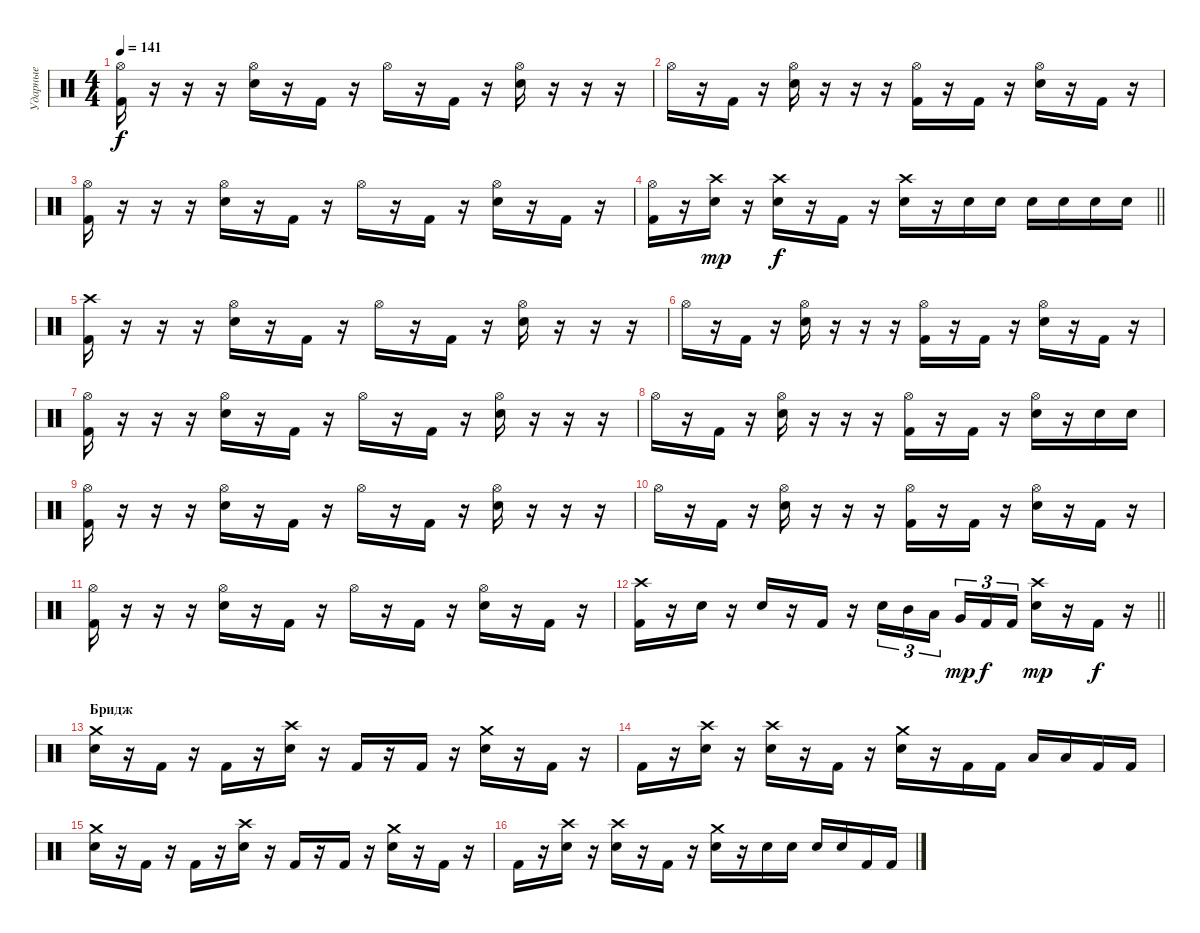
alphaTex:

\track ("Ударные" "Ударные") {instrument percussion}
\staff {score}
\articulation defaults
\ts (4 4)
\tempo 141
\clef neutral
\ks c
("Hi-Hat (open)" "Kick (hit) 2").16{dy f} r.16 r.16 r.16 ("Hi-Hat (open)" "Electric Snare (hit)").16 r.16 "Kick (hit) 2".16 r.16 "Hi-Hat (open)".16 r.16 "Kick (hit) 2".16 r.16 ("Hi-Hat (open)" "Electric Snare (hit)").16 r.16 r.16 r.16 |
"Hi-Hat (open)".16 r.16 "Kick (hit) 2".16 r.16 ("Hi-Hat (open)" "Electric Snare (hit)").16 r.16 r.16 r.16 ("Hi-Hat (open)" "Kick (hit) 2").16 r.16 "Kick (hit) 2".16 r.16 ("Hi-Hat (open)" "Electric Snare (hit)").16 r.16 "Kick (hit) 2".16 r.16 |
("Hi-Hat (open)" "Kick (hit) 2").16 r.16 r.16 r.16 ("Hi-Hat (open)" "Electric Snare (hit)").16 r.16 "Kick (hit) 2".16 r.16 "Hi-Hat (open)".16 r.16 "Kick (hit) 2".16 r.16 ("Hi-Hat (open)" "Electric Snare (hit)").16 r.16 "Kick (hit) 2".16 r.16 |
\barLineRight lightlight
("Hi-Hat (open)" "Kick (hit) 2").16 r.16 ("Crash high (hit)" "Electric Snare (hit)").16{dy mp} r.16 ("Crash high (hit)" "Electric Snare (hit)").16{dy f} r.16 "Kick (hit) 2".16 r.16 ("Crash high (hit)" "Electric Snare (hit)").16 r.16 "Electric Snare (hit)".16 "Electric Snare (hit)".16 "Electric Snare (hit)".16 "Electric Snare (hit)".16 "Electric Snare (hit)".16 "Electric Snare (hit)".16 |
\section ("" "")
("Crash high (hit)" "Kick (hit) 2").16 r.16 r.16 r.16 ("Hi-Hat (open)" "Electric Snare (hit)").16 r.16 "Kick (hit) 2".16 r.16 "Hi-Hat (open)".16 r.16 "Kick (hit) 2".16 r.16 ("Hi-Hat (open)" "Electric Snare (hit)").16 r.16 r.16 r.16 |
"Hi-Hat (open)".16 r.16 "Kick (hit) 2".16 r.16 ("Hi-Hat (open)" "Electric Snare (hit)").16 r.16 r.16 r.16 ("Hi-Hat (open)" "Kick (hit) 2").16 r.16 "Kick (hit) 2".16 r.16 ("Hi-Hat (open)" "Electric Snare (hit)").16 r.16 "Kick (hit) 2".16 r.16 |
("Hi-Hat (open)" "Kick (hit) 2").16 r.16 r.16 r.16 ("Hi-Hat (open)" "Electric Snare (hit)").16 r.16 "Kick (hit) 2".16 r.16 "Hi-Hat (open)".16 r.16 "Kick (hit) 2".16 r.16 ("Hi-Hat (open)" "Electric Snare (hit)").16 r.16 r.16 r.16 |
"Hi-Hat (open)".16 r.16 "Kick (hit) 2".16 r.16 ("Hi-Hat (open)" "Electric Snare (hit)").16 r.16 r.16 r.16 ("Hi-Hat (open)" "Kick (hit) 2").16 r.16 "Kick (hit) 2".16 r.16 ("Hi-Hat (open)" "Electric Snare (hit)").16 r.16 "Electric Snare (hit)".16 "Electric Snare (hit)".16 |
("Hi-Hat (open)" "Kick (hit) 2").16 r.16 r.16 r.16 ("Hi-Hat (open)" "Electric Snare (hit)").16 r.16 "Kick (hit) 2".16 r.16 "Hi-Hat (open)".16 r.16 "Kick (hit) 2".16 r.16 ("Hi-Hat (open)" "Electric Snare (hit)").16 r.16 r.16 r.16 |
"Hi-Hat (open)".16 r.16 "Kick (hit) 2".16 r.16 ("Hi-Hat (open)" "Electric Snare (hit)").16 r.16 r.16 r.16 ("Hi-Hat (open)" "Kick (hit) 2").16 r.16 "Kick (hit) 2".16 r.16 ("Hi-Hat (open)" "Electric Snare (hit)").16 r.16 "Kick (hit) 2".16 r.16 |
("Hi-Hat (open)" "Kick (hit) 2").16 r.16 r.16 r.16 ("Hi-Hat (open)" "Electric Snare (hit)").16 r.16 "Kick (hit) 2".16 r.16 "Hi-Hat (open)".16 r.16 "Kick (hit) 2".16 r.16 ("Hi-Hat (open)" "Electric Snare (hit)").16 r.16 "Kick (hit) 2".16 r.16 |
\barLineRight lightlight
("Crash high (hit)" "Kick (hit) 2").16 r.16 "Electric Snare (hit)".16 r.16 "Electric Snare (hit)".16 r.16 "Kick (hit) 2".16 r.16 "Electric Snare (hit)".16{tu (3 2)} "Mid Tom (hit)".16{tu (3 2)} "Low Tom (hit)".16{tu (3 2) beam splitsecondary} "Very Low Tom (hit)".16{tu (3 2) dy mp} "Kick (hit) 2".16{tu (3 2) dy f} "Kick (hit) 2".16{tu (3 2)} ("Crash high (hit)" "Electric Snare (hit)").16{dy mp} r.16 "Kick (hit) 2".16{dy f} r.16 |
\section ("" "Бридж")
("Crash medium (hit)" "Electric Snare (hit)").16 r.16 "Kick (hit) 2".16 r.16 "Kick (hit) 2".16 r.16 ("Crash high (hit)" "Electric Snare (hit)").16 r.16 "Kick (hit) 2".16 r.16 "Kick (hit) 2".16 r.16 ("Crash medium (hit)" "Electric Snare (hit)").16 r.16 "Kick (hit) 2".16 r.16 |
"Kick (hit) 2".16 r.16 ("Crash high (hit)" "Electric Snare (hit)").16 r.16 ("Crash high (hit)" "Electric Snare (hit)").16 r.16 "Kick (hit) 2".16 r.16 ("Crash medium (hit)" "Electric Snare (hit)").16 r.16 "Kick (hit) 2".16 "Kick (hit) 2".16 "Low Tom (hit)".16 "Low Tom (hit)".16 "Kick (hit) 2".16 "Kick (hit) 2".16 |
("Crash medium (hit)" "Electric Snare (hit)").16 r.16 "Kick (hit) 2".16 r.16 "Kick (hit) 2".16 r.16 ("Crash high (hit)" "Electric Snare (hit)").16 r.16 "Kick (hit) 2".16 r.16 "Kick (hit) 2".16 r.16 ("Crash medium (hit)" "Electric Snare (hit)").16 r.16 "Kick (hit) 2".16 r.16 |
"Kick (hit) 2".16 r.16 ("Crash high (hit)" "Electric Snare (hit)").16 r.16 ("Crash high (hit)" "Electric Snare (hit)").16 r.16 "Kick (hit) 2".16 r.16 ("Crash medium (hit)" "Electric Snare (hit)").16 r.16 "Electric Snare (hit)".16 "Electric Snare (hit)".16 "Electric Snare (hit)".16 "Electric Snare (hit)".16 "Kick (hit) 2".16 "Kick (hit) 2".16
